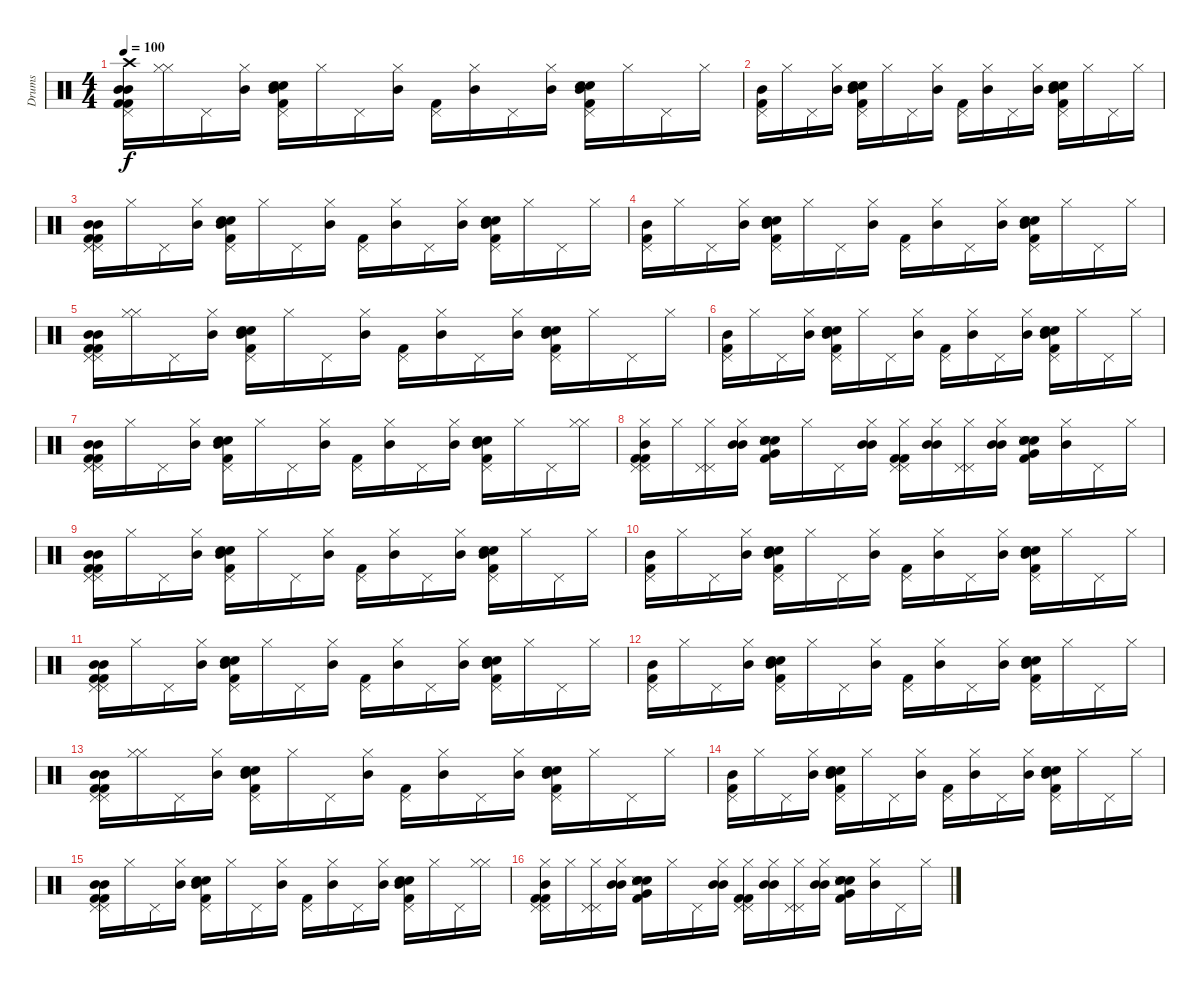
\track ("Drums" "Drums") {instrument percussion}
\staff {score}
\articulation defaults
\ts (4 4)
\tempo 100
\clef neutral
\ks c
("Kick (hit) 2" "Mid Tom (hit)" "Pedal Hi-Hat (hit)" "Kick (hit) 2" "Mid Tom (hit)" "Crash high (hit)").16{dy f} ("Hi-Hat (closed)" "Hi-Hat (closed)").16 "Pedal Hi-Hat (hit)".16 ("Hi-Hat (closed)" "Mid Tom (hit)").16 ("Pedal Hi-Hat (hit)" "Electric Snare (hit)" "Snare (hit) 2" "Kick (hit) 2" "Mid Tom (hit)").16 "Hi-Hat (closed)".16 "Pedal Hi-Hat (hit)".16 ("Hi-Hat (closed)" "Mid Tom (hit)").16 ("Pedal Hi-Hat (hit)" "Kick (hit) 2").16 ("Hi-Hat (closed)" "Mid Tom (hit)").16 "Pedal Hi-Hat (hit)".16 ("Hi-Hat (closed)" "Mid Tom (hit)").16 ("Pedal Hi-Hat (hit)" "Snare (hit) 2" "Electric Snare (hit)" "Kick (hit) 2" "Mid Tom (hit)").16 "Hi-Hat (closed)".16 "Pedal Hi-Hat (hit)".16 "Hi-Hat (closed)".16 |
("Pedal Hi-Hat (hit)" "Kick (hit) 2" "Mid Tom (hit)").16 "Hi-Hat (closed)".16 "Pedal Hi-Hat (hit)".16 ("Hi-Hat (closed)" "Mid Tom (hit)").16 ("Pedal Hi-Hat (hit)" "Snare (hit) 2" "Electric Snare (hit)" "Kick (hit) 2" "Mid Tom (hit)").16 "Hi-Hat (closed)".16 "Pedal Hi-Hat (hit)".16 ("Hi-Hat (closed)" "Mid Tom (hit)").16 ("Pedal Hi-Hat (hit)" "Kick (hit) 2").16 ("Hi-Hat (closed)" "Mid Tom (hit)").16 "Pedal Hi-Hat (hit)".16 ("Hi-Hat (closed)" "Mid Tom (hit)").16 ("Pedal Hi-Hat (hit)" "Snare (hit) 2" "Electric Snare (hit)" "Kick (hit) 2" "Mid Tom (hit)").16 "Hi-Hat (closed)".16 "Pedal Hi-Hat (hit)".16 "Hi-Hat (closed)".16 |
("Pedal Hi-Hat (hit)" "Kick (hit) 2" "Mid Tom (hit)" "Pedal Hi-Hat (hit)" "Kick (hit) 2" "Mid Tom (hit)").16 "Hi-Hat (closed)".16 "Pedal Hi-Hat (hit)".16 ("Hi-Hat (closed)" "Mid Tom (hit)").16 ("Pedal Hi-Hat (hit)" "Electric Snare (hit)" "Snare (hit) 2" "Kick (hit) 2" "Mid Tom (hit)").16 "Hi-Hat (closed)".16 "Pedal Hi-Hat (hit)".16 ("Hi-Hat (closed)" "Mid Tom (hit)").16 ("Pedal Hi-Hat (hit)" "Kick (hit) 2").16 ("Hi-Hat (closed)" "Mid Tom (hit)").16 "Pedal Hi-Hat (hit)".16 ("Hi-Hat (closed)" "Mid Tom (hit)").16 ("Pedal Hi-Hat (hit)" "Snare (hit) 2" "Electric Snare (hit)" "Kick (hit) 2" "Mid Tom (hit)").16 "Hi-Hat (closed)".16 "Pedal Hi-Hat (hit)".16 "Hi-Hat (closed)".16 |
("Pedal Hi-Hat (hit)" "Kick (hit) 2" "Mid Tom (hit)").16 "Hi-Hat (closed)".16 "Pedal Hi-Hat (hit)".16 ("Hi-Hat (closed)" "Mid Tom (hit)").16 ("Pedal Hi-Hat (hit)" "Snare (hit) 2" "Electric Snare (hit)" "Kick (hit) 2" "Mid Tom (hit)").16 "Hi-Hat (closed)".16 "Pedal Hi-Hat (hit)".16 ("Hi-Hat (closed)" "Mid Tom (hit)").16 ("Pedal Hi-Hat (hit)" "Kick (hit) 2").16 ("Hi-Hat (closed)" "Mid Tom (hit)").16 "Pedal Hi-Hat (hit)".16 ("Hi-Hat (closed)" "Mid Tom (hit)").16 ("Pedal Hi-Hat (hit)" "Snare (hit) 2" "Electric Snare (hit)" "Kick (hit) 2" "Mid Tom (hit)").16 "Hi-Hat (closed)".16 "Pedal Hi-Hat (hit)".16 "Hi-Hat (closed)".16 |
("Pedal Hi-Hat (hit)" "Kick (hit) 2" "Mid Tom (hit)" "Pedal Hi-Hat (hit)" "Kick (hit) 2" "Mid Tom (hit)").16 ("Hi-Hat (closed)" "Hi-Hat (closed)").16 "Pedal Hi-Hat (hit)".16 ("Hi-Hat (closed)" "Mid Tom (hit)").16 ("Pedal Hi-Hat (hit)" "Electric Snare (hit)" "Snare (hit) 2" "Kick (hit) 2" "Mid Tom (hit)").16 "Hi-Hat (closed)".16 "Pedal Hi-Hat (hit)".16 ("Hi-Hat (closed)" "Mid Tom (hit)").16 ("Pedal Hi-Hat (hit)" "Kick (hit) 2").16 ("Hi-Hat (closed)" "Mid Tom (hit)").16 "Pedal Hi-Hat (hit)".16 ("Hi-Hat (closed)" "Mid Tom (hit)").16 ("Pedal Hi-Hat (hit)" "Snare (hit) 2" "Electric Snare (hit)" "Kick (hit) 2" "Mid Tom (hit)").16 "Hi-Hat (closed)".16 "Pedal Hi-Hat (hit)".16 "Hi-Hat (closed)".16 |
("Pedal Hi-Hat (hit)" "Kick (hit) 2" "Mid Tom (hit)").16 "Hi-Hat (closed)".16 "Pedal Hi-Hat (hit)".16 ("Hi-Hat (closed)" "Mid Tom (hit)").16 ("Pedal Hi-Hat (hit)" "Snare (hit) 2" "Electric Snare (hit)" "Kick (hit) 2" "Mid Tom (hit)").16 "Hi-Hat (closed)".16 "Pedal Hi-Hat (hit)".16 ("Hi-Hat (closed)" "Mid Tom (hit)").16 ("Pedal Hi-Hat (hit)" "Kick (hit) 2").16 ("Hi-Hat (closed)" "Mid Tom (hit)").16 "Pedal Hi-Hat (hit)".16 ("Hi-Hat (closed)" "Mid Tom (hit)").16 ("Pedal Hi-Hat (hit)" "Snare (hit) 2" "Electric Snare (hit)" "Kick (hit) 2" "Mid Tom (hit)").16 "Hi-Hat (closed)".16 "Pedal Hi-Hat (hit)".16 "Hi-Hat (closed)".16 |
("Pedal Hi-Hat (hit)" "Kick (hit) 2" "Mid Tom (hit)" "Pedal Hi-Hat (hit)" "Kick (hit) 2" "Mid Tom (hit)").16 "Hi-Hat (closed)".16 "Pedal Hi-Hat (hit)".16 ("Hi-Hat (closed)" "Mid Tom (hit)").16 ("Pedal Hi-Hat (hit)" "Electric Snare (hit)" "Snare (hit) 2" "Kick (hit) 2" "Mid Tom (hit)").16 "Hi-Hat (closed)".16 "Pedal Hi-Hat (hit)".16 ("Hi-Hat (closed)" "Mid Tom (hit)").16 ("Pedal Hi-Hat (hit)" "Kick (hit) 2").16 ("Hi-Hat (closed)" "Mid Tom (hit)").16 "Pedal Hi-Hat (hit)".16 ("Hi-Hat (closed)" "Mid Tom (hit)").16 ("Pedal Hi-Hat (hit)" "Snare (hit) 2" "Electric Snare (hit)" "Kick (hit) 2" "Mid Tom (hit)").16 "Hi-Hat (closed)".16 "Pedal Hi-Hat (hit)".16 ("Hi-Hat (closed)" "Hi-Hat (closed)").16 |
("Pedal Hi-Hat (hit)" "Hi-Hat (closed)" "Kick (hit) 2" "Mid Tom (hit)" "Pedal Hi-Hat (hit)" "Kick (hit) 2").16 "Hi-Hat (closed)".16 ("Hi-Hat (closed)" "Pedal Hi-Hat (hit)" "Pedal Hi-Hat (hit)").16 ("Mid Tom (hit)" "Hi-Hat (closed)" "Mid Tom (hit)").16 ("Snare (hit) 2" "Kick (hit) 2" "Electric Snare (hit)" "Hand Clap (hit)" "Snare (side stick) 3" "Very Low Tom (hit)").16 "Hi-Hat (closed)".16 "Pedal Hi-Hat (hit)".16 ("Mid Tom (hit)" "Hi-Hat (closed)" "Mid Tom (hit)").16 ("Hi-Hat (closed)" "Pedal Hi-Hat (hit)" "Kick (hit) 2" "Pedal Hi-Hat (hit)" "Kick (hit) 2").16 ("Mid Tom (hit)" "Hi-Hat (closed)" "Mid Tom (hit)").16 ("Hi-Hat (closed)" "Pedal Hi-Hat (hit)" "Pedal Hi-Hat (hit)").16 ("Mid Tom (hit)" "Hi-Hat (closed)" "Mid Tom (hit)").16 ("Kick (hit) 2" "Snare (hit) 2" "Electric Snare (hit)" "Hand Clap (hit)" "Snare (side stick) 3" "Very Low Tom (hit)").16 ("Mid Tom (hit)" "Hi-Hat (closed)").16 "Pedal Hi-Hat (hit)".16 "Hi-Hat (closed)".16 |
("Kick (hit) 2" "Mid Tom (hit)" "Pedal Hi-Hat (hit)" "Kick (hit) 2" "Mid Tom (hit)" "Pedal Hi-Hat (hit)").16 "Hi-Hat (closed)".16 "Pedal Hi-Hat (hit)".16 ("Hi-Hat (closed)" "Mid Tom (hit)").16 ("Pedal Hi-Hat (hit)" "Electric Snare (hit)" "Snare (hit) 2" "Kick (hit) 2" "Mid Tom (hit)").16 "Hi-Hat (closed)".16 "Pedal Hi-Hat (hit)".16 ("Hi-Hat (closed)" "Mid Tom (hit)").16 ("Pedal Hi-Hat (hit)" "Kick (hit) 2").16 ("Hi-Hat (closed)" "Mid Tom (hit)").16 "Pedal Hi-Hat (hit)".16 ("Hi-Hat (closed)" "Mid Tom (hit)").16 ("Pedal Hi-Hat (hit)" "Snare (hit) 2" "Electric Snare (hit)" "Kick (hit) 2" "Mid Tom (hit)").16 "Hi-Hat (closed)".16 "Pedal Hi-Hat (hit)".16 "Hi-Hat (closed)".16 |
("Pedal Hi-Hat (hit)" "Kick (hit) 2" "Mid Tom (hit)").16 "Hi-Hat (closed)".16 "Pedal Hi-Hat (hit)".16 ("Hi-Hat (closed)" "Mid Tom (hit)").16 ("Pedal Hi-Hat (hit)" "Snare (hit) 2" "Electric Snare (hit)" "Kick (hit) 2" "Mid Tom (hit)").16 "Hi-Hat (closed)".16 "Pedal Hi-Hat (hit)".16 ("Hi-Hat (closed)" "Mid Tom (hit)").16 ("Pedal Hi-Hat (hit)" "Kick (hit) 2").16 ("Hi-Hat (closed)" "Mid Tom (hit)").16 "Pedal Hi-Hat (hit)".16 ("Hi-Hat (closed)" "Mid Tom (hit)").16 ("Pedal Hi-Hat (hit)" "Snare (hit) 2" "Electric Snare (hit)" "Kick (hit) 2" "Mid Tom (hit)").16 "Hi-Hat (closed)".16 "Pedal Hi-Hat (hit)".16 "Hi-Hat (closed)".16 |
("Pedal Hi-Hat (hit)" "Kick (hit) 2" "Mid Tom (hit)" "Pedal Hi-Hat (hit)" "Kick (hit) 2" "Mid Tom (hit)").16 "Hi-Hat (closed)".16 "Pedal Hi-Hat (hit)".16 ("Hi-Hat (closed)" "Mid Tom (hit)").16 ("Pedal Hi-Hat (hit)" "Electric Snare (hit)" "Snare (hit) 2" "Kick (hit) 2" "Mid Tom (hit)").16 "Hi-Hat (closed)".16 "Pedal Hi-Hat (hit)".16 ("Hi-Hat (closed)" "Mid Tom (hit)").16 ("Pedal Hi-Hat (hit)" "Kick (hit) 2").16 ("Hi-Hat (closed)" "Mid Tom (hit)").16 "Pedal Hi-Hat (hit)".16 ("Hi-Hat (closed)" "Mid Tom (hit)").16 ("Pedal Hi-Hat (hit)" "Snare (hit) 2" "Electric Snare (hit)" "Kick (hit) 2" "Mid Tom (hit)").16 "Hi-Hat (closed)".16 "Pedal Hi-Hat (hit)".16 "Hi-Hat (closed)".16 |
("Pedal Hi-Hat (hit)" "Kick (hit) 2" "Mid Tom (hit)").16 "Hi-Hat (closed)".16 "Pedal Hi-Hat (hit)".16 ("Hi-Hat (closed)" "Mid Tom (hit)").16 ("Pedal Hi-Hat (hit)" "Snare (hit) 2" "Electric Snare (hit)" "Kick (hit) 2" "Mid Tom (hit)").16 "Hi-Hat (closed)".16 "Pedal Hi-Hat (hit)".16 ("Hi-Hat (closed)" "Mid Tom (hit)").16 ("Pedal Hi-Hat (hit)" "Kick (hit) 2").16 ("Hi-Hat (closed)" "Mid Tom (hit)").16 "Pedal Hi-Hat (hit)".16 ("Hi-Hat (closed)" "Mid Tom (hit)").16 ("Pedal Hi-Hat (hit)" "Snare (hit) 2" "Electric Snare (hit)" "Kick (hit) 2" "Mid Tom (hit)").16 "Hi-Hat (closed)".16 "Pedal Hi-Hat (hit)".16 "Hi-Hat (closed)".16 |
("Pedal Hi-Hat (hit)" "Kick (hit) 2" "Mid Tom (hit)" "Pedal Hi-Hat (hit)" "Kick (hit) 2" "Mid Tom (hit)").16 ("Hi-Hat (closed)" "Hi-Hat (closed)").16 "Pedal Hi-Hat (hit)".16 ("Hi-Hat (closed)" "Mid Tom (hit)").16 ("Pedal Hi-Hat (hit)" "Electric Snare (hit)" "Snare (hit) 2" "Kick (hit) 2" "Mid Tom (hit)").16 "Hi-Hat (closed)".16 "Pedal Hi-Hat (hit)".16 ("Hi-Hat (closed)" "Mid Tom (hit)").16 ("Pedal Hi-Hat (hit)" "Kick (hit) 2").16 ("Hi-Hat (closed)" "Mid Tom (hit)").16 "Pedal Hi-Hat (hit)".16 ("Hi-Hat (closed)" "Mid Tom (hit)").16 ("Pedal Hi-Hat (hit)" "Snare (hit) 2" "Electric Snare (hit)" "Kick (hit) 2" "Mid Tom (hit)").16 "Hi-Hat (closed)".16 "Pedal Hi-Hat (hit)".16 "Hi-Hat (closed)".16 |
("Pedal Hi-Hat (hit)" "Kick (hit) 2" "Mid Tom (hit)").16 "Hi-Hat (closed)".16 "Pedal Hi-Hat (hit)".16 ("Hi-Hat (closed)" "Mid Tom (hit)").16 ("Pedal Hi-Hat (hit)" "Snare (hit) 2" "Electric Snare (hit)" "Kick (hit) 2" "Mid Tom (hit)").16 "Hi-Hat (closed)".16 "Pedal Hi-Hat (hit)".16 ("Hi-Hat (closed)" "Mid Tom (hit)").16 ("Pedal Hi-Hat (hit)" "Kick (hit) 2").16 ("Hi-Hat (closed)" "Mid Tom (hit)").16 "Pedal Hi-Hat (hit)".16 ("Hi-Hat (closed)" "Mid Tom (hit)").16 ("Pedal Hi-Hat (hit)" "Snare (hit) 2" "Electric Snare (hit)" "Kick (hit) 2" "Mid Tom (hit)").16 "Hi-Hat (closed)".16 "Pedal Hi-Hat (hit)".16 "Hi-Hat (closed)".16 |
("Pedal Hi-Hat (hit)" "Kick (hit) 2" "Mid Tom (hit)" "Pedal Hi-Hat (hit)" "Kick (hit) 2" "Mid Tom (hit)").16 "Hi-Hat (closed)".16 "Pedal Hi-Hat (hit)".16 ("Hi-Hat (closed)" "Mid Tom (hit)").16 ("Pedal Hi-Hat (hit)" "Electric Snare (hit)" "Snare (hit) 2" "Kick (hit) 2" "Mid Tom (hit)").16 "Hi-Hat (closed)".16 "Pedal Hi-Hat (hit)".16 ("Hi-Hat (closed)" "Mid Tom (hit)").16 ("Pedal Hi-Hat (hit)" "Kick (hit) 2").16 ("Hi-Hat (closed)" "Mid Tom (hit)").16 "Pedal Hi-Hat (hit)".16 ("Hi-Hat (closed)" "Mid Tom (hit)").16 ("Pedal Hi-Hat (hit)" "Snare (hit) 2" "Electric Snare (hit)" "Kick (hit) 2" "Mid Tom (hit)").16 "Hi-Hat (closed)".16 "Pedal Hi-Hat (hit)".16 ("Hi-Hat (closed)" "Hi-Hat (closed)").16 |
("Pedal Hi-Hat (hit)" "Hi-Hat (closed)" "Kick (hit) 2" "Mid Tom (hit)" "Pedal Hi-Hat (hit)" "Kick (hit) 2").16 "Hi-Hat (closed)".16 ("Hi-Hat (closed)" "Pedal Hi-Hat (hit)" "Pedal Hi-Hat (hit)").16 ("Mid Tom (hit)" "Hi-Hat (closed)" "Mid Tom (hit)").16 ("Snare (hit) 2" "Kick (hit) 2" "Electric Snare (hit)" "Hand Clap (hit)" "Snare (side stick) 3" "Very Low Tom (hit)").16 "Hi-Hat (closed)".16 "Pedal Hi-Hat (hit)".16 ("Mid Tom (hit)" "Hi-Hat (closed)" "Mid Tom (hit)").16 ("Hi-Hat (closed)" "Pedal Hi-Hat (hit)" "Kick (hit) 2" "Pedal Hi-Hat (hit)" "Kick (hit) 2").16 ("Mid Tom (hit)" "Hi-Hat (closed)" "Mid Tom (hit)").16 ("Hi-Hat (closed)" "Pedal Hi-Hat (hit)" "Pedal Hi-Hat (hit)").16 ("Mid Tom (hit)" "Hi-Hat (closed)" "Mid Tom (hit)").16 ("Kick (hit) 2" "Snare (hit) 2" "Electric Snare (hit)" "Hand Clap (hit)" "Snare (side stick) 3" "Very Low Tom (hit)").16 ("Mid Tom (hit)" "Hi-Hat (closed)").16 "Pedal Hi-Hat (hit)".16 "Hi-Hat (closed)".16
